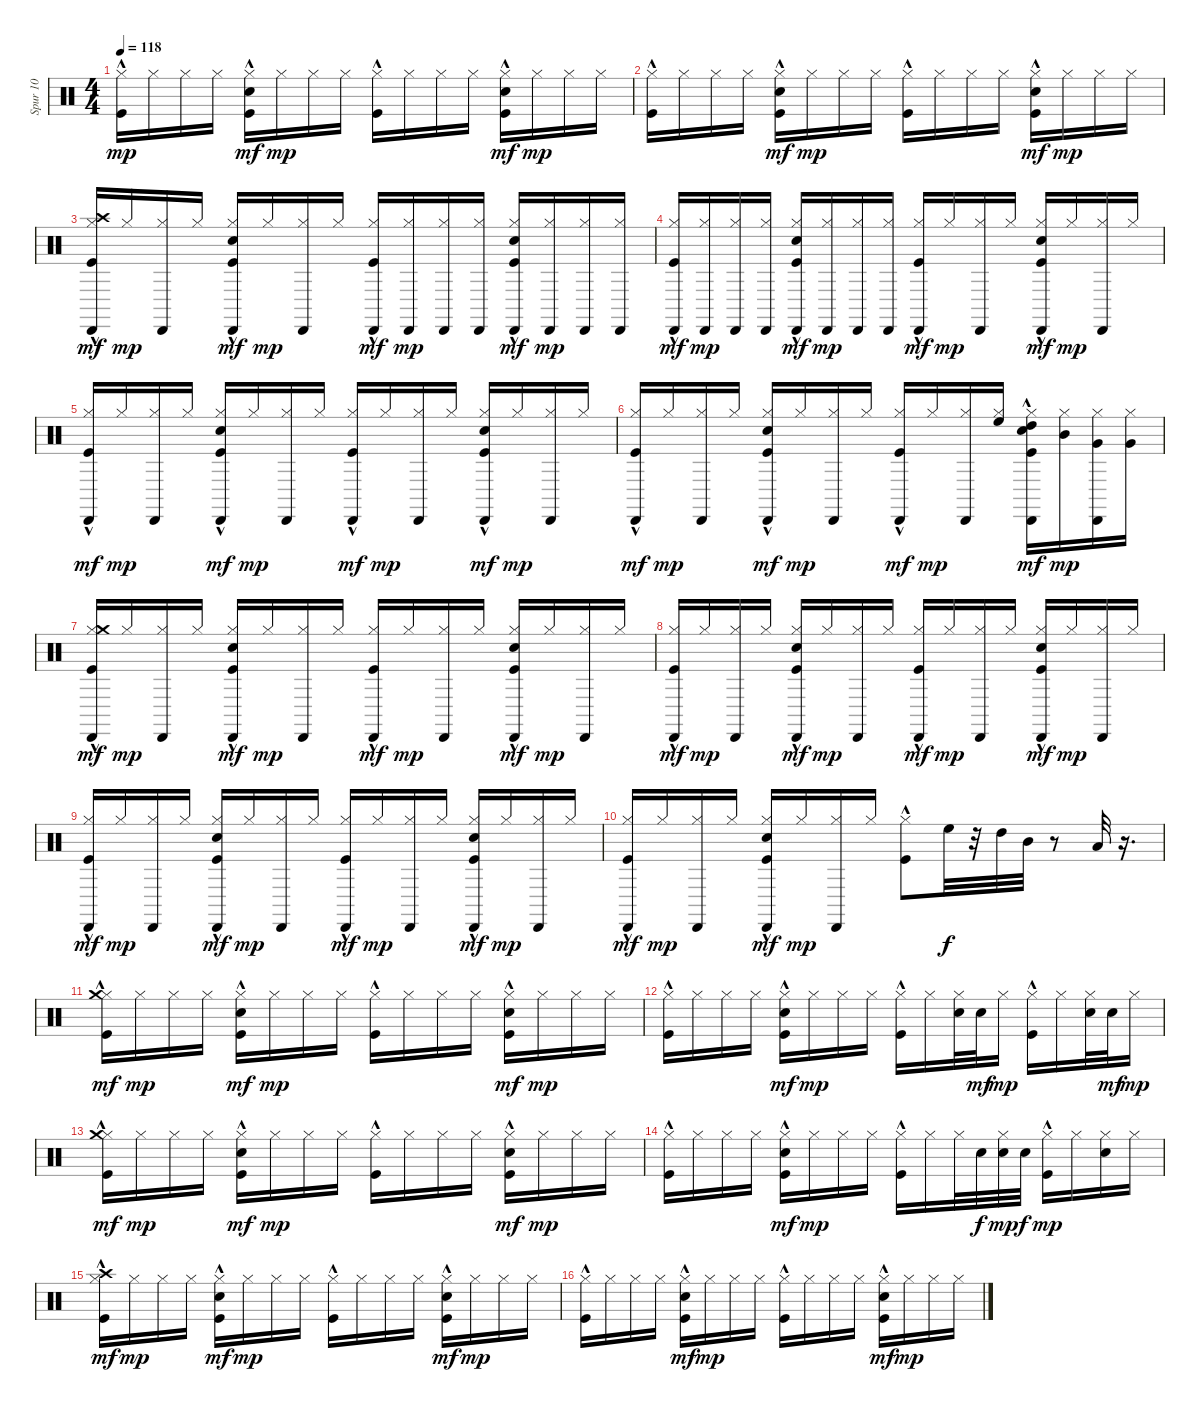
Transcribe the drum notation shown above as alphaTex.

\track ("Spur 10" "Spur 10") {instrument percussion}
\staff {score}
\articulation defaults
\ts (4 4)
\tempo 118
\clef neutral
\ks c
("Hi-Hat (closed)" "Kick (hit)"{hac}).16{dy mp} "Hi-Hat (closed)".16 "Hi-Hat (closed)".16 "Hi-Hat (closed)".16 ("Hi-Hat (closed)" "Kick (hit)"{hac} "Electric Snare (hit)").16{dy mf} "Hi-Hat (closed)".16{dy mp} "Hi-Hat (closed)".16 "Hi-Hat (closed)".16 ("Hi-Hat (closed)" "Kick (hit)"{hac}).16 "Hi-Hat (closed)".16 "Hi-Hat (closed)".16 "Hi-Hat (closed)".16 ("Hi-Hat (closed)" "Kick (hit)"{hac} "Electric Snare (hit)").16{dy mf} "Hi-Hat (closed)".16{dy mp} "Hi-Hat (closed)".16 "Hi-Hat (closed)".16 |
("Hi-Hat (closed)" "Kick (hit)"{hac}).16 "Hi-Hat (closed)".16 "Hi-Hat (closed)".16 "Hi-Hat (closed)".16 ("Hi-Hat (closed)" "Kick (hit)"{hac} "Electric Snare (hit)").16{dy mf} "Hi-Hat (closed)".16{dy mp} "Hi-Hat (closed)".16 "Hi-Hat (closed)".16 ("Hi-Hat (closed)" "Kick (hit)"{hac}).16 "Hi-Hat (closed)".16 "Hi-Hat (closed)".16 "Hi-Hat (closed)".16 ("Hi-Hat (closed)" "Kick (hit)"{hac} "Electric Snare (hit)").16{dy mf} "Hi-Hat (closed)".16{dy mp} "Hi-Hat (closed)".16 "Hi-Hat (closed)".16 |
("Hi-Hat (closed)" "Kick (hit)"{hac} "Crash high (hit)"{hac} "Cabasa (hit)").16{dy mf} "Hi-Hat (closed)".16{dy mp} ("Hi-Hat (closed)" "Cabasa (hit)").16 "Hi-Hat (closed)".16 ("Hi-Hat (closed)" "Kick (hit)"{hac} "Electric Snare (hit)" "Cabasa (hit)").16{dy mf} "Hi-Hat (closed)".16{dy mp} ("Hi-Hat (closed)" "Cabasa (hit)").16 "Hi-Hat (closed)".16 ("Hi-Hat (closed)" "Kick (hit)"{hac} "Cabasa (hit)").16{dy mf} ("Hi-Hat (closed)" "Cabasa (hit)").16{dy mp} ("Hi-Hat (closed)" "Cabasa (hit)").16 ("Hi-Hat (closed)" "Cabasa (hit)").16 ("Hi-Hat (closed)" "Kick (hit)"{hac} "Electric Snare (hit)" "Cabasa (hit)").16{dy mf} ("Hi-Hat (closed)" "Cabasa (hit)").16{dy mp} ("Hi-Hat (closed)" "Cabasa (hit)").16 ("Hi-Hat (closed)" "Cabasa (hit)").16 |
("Hi-Hat (closed)" "Kick (hit)"{hac} "Cabasa (hit)").16{dy mf} ("Hi-Hat (closed)" "Cabasa (hit)").16{dy mp} ("Hi-Hat (closed)" "Cabasa (hit)").16 ("Hi-Hat (closed)" "Cabasa (hit)").16 ("Hi-Hat (closed)" "Kick (hit)"{hac} "Electric Snare (hit)" "Cabasa (hit)").16{dy mf} ("Hi-Hat (closed)" "Cabasa (hit)").16{dy mp} ("Hi-Hat (closed)" "Cabasa (hit)").16 ("Hi-Hat (closed)" "Cabasa (hit)").16 ("Hi-Hat (closed)" "Kick (hit)"{hac} "Cabasa (hit)").16{dy mf} "Hi-Hat (closed)".16{dy mp} ("Hi-Hat (closed)" "Cabasa (hit)").16 "Hi-Hat (closed)".16 ("Hi-Hat (closed)" "Kick (hit)"{hac} "Electric Snare (hit)" "Cabasa (hit)").16{dy mf} "Hi-Hat (closed)".16{dy mp} ("Hi-Hat (closed)" "Cabasa (hit)").16 "Hi-Hat (closed)".16 |
("Hi-Hat (closed)" "Kick (hit)"{hac} "Cabasa (hit)").16{dy mf} "Hi-Hat (closed)".16{dy mp} ("Hi-Hat (closed)" "Cabasa (hit)").16 "Hi-Hat (closed)".16 ("Hi-Hat (closed)" "Kick (hit)"{hac} "Electric Snare (hit)" "Cabasa (hit)").16{dy mf} "Hi-Hat (closed)".16{dy mp} ("Hi-Hat (closed)" "Cabasa (hit)").16 "Hi-Hat (closed)".16 ("Hi-Hat (closed)" "Kick (hit)"{hac} "Cabasa (hit)").16{dy mf} "Hi-Hat (closed)".16{dy mp} ("Hi-Hat (closed)" "Cabasa (hit)").16 "Hi-Hat (closed)".16 ("Hi-Hat (closed)" "Kick (hit)"{hac} "Electric Snare (hit)" "Cabasa (hit)").16{dy mf} "Hi-Hat (closed)".16{dy mp} ("Hi-Hat (closed)" "Cabasa (hit)").16 "Hi-Hat (closed)".16 |
("Hi-Hat (closed)" "Kick (hit)"{hac} "Cabasa (hit)").16{dy mf} "Hi-Hat (closed)".16{dy mp} ("Hi-Hat (closed)" "Cabasa (hit)").16 "Hi-Hat (closed)".16 ("Hi-Hat (closed)" "Kick (hit)"{hac} "Electric Snare (hit)" "Cabasa (hit)").16{dy mf} "Hi-Hat (closed)".16{dy mp} ("Hi-Hat (closed)" "Cabasa (hit)").16 "Hi-Hat (closed)".16 ("Hi-Hat (closed)" "Kick (hit)"{hac} "Cabasa (hit)").16{dy mf} "Hi-Hat (closed)".16{dy mp} ("Hi-Hat (closed)" "Cabasa (hit)").16 ("High Floor Tom (hit)" "Hi-Hat (closed)").16 ("High Tom (hit)" "Hi-Hat (closed)" "Kick (hit)"{hac} "Electric Snare (hit)" "Cabasa (hit)").16{dy mf} ("Mid Tom (hit)" "Hi-Hat (closed)").16{dy mp} ("Very Low Tom (hit)" "Hi-Hat (closed)" "Cabasa (hit)").16 ("Very Low Tom (hit)" "Hi-Hat (closed)").16 |
("Hi-Hat (closed)" "Kick (hit)"{hac} "Crash medium (hit)"{hac} "Cabasa (hit)").16{dy mf} "Hi-Hat (closed)".16{dy mp} ("Hi-Hat (closed)" "Cabasa (hit)").16 "Hi-Hat (closed)".16 ("Hi-Hat (closed)" "Kick (hit)"{hac} "Electric Snare (hit)" "Cabasa (hit)").16{dy mf} "Hi-Hat (closed)".16{dy mp} ("Hi-Hat (closed)" "Cabasa (hit)").16 "Hi-Hat (closed)".16 ("Hi-Hat (closed)" "Kick (hit)"{hac} "Cabasa (hit)").16{dy mf} "Hi-Hat (closed)".16{dy mp} ("Hi-Hat (closed)" "Cabasa (hit)").16 "Hi-Hat (closed)".16 ("Hi-Hat (closed)" "Kick (hit)"{hac} "Electric Snare (hit)" "Cabasa (hit)").16{dy mf} "Hi-Hat (closed)".16{dy mp} ("Hi-Hat (closed)" "Cabasa (hit)").16 "Hi-Hat (closed)".16 |
("Hi-Hat (closed)" "Kick (hit)"{hac} "Cabasa (hit)").16{dy mf} "Hi-Hat (closed)".16{dy mp} ("Hi-Hat (closed)" "Cabasa (hit)").16 "Hi-Hat (closed)".16 ("Hi-Hat (closed)" "Kick (hit)"{hac} "Electric Snare (hit)" "Cabasa (hit)").16{dy mf} "Hi-Hat (closed)".16{dy mp} ("Hi-Hat (closed)" "Cabasa (hit)").16 "Hi-Hat (closed)".16 ("Hi-Hat (closed)" "Kick (hit)"{hac} "Cabasa (hit)").16{dy mf} "Hi-Hat (closed)".16{dy mp} ("Hi-Hat (closed)" "Cabasa (hit)").16 "Hi-Hat (closed)".16 ("Hi-Hat (closed)" "Kick (hit)"{hac} "Electric Snare (hit)" "Cabasa (hit)").16{dy mf} "Hi-Hat (closed)".16{dy mp} ("Hi-Hat (closed)" "Cabasa (hit)").16 "Hi-Hat (closed)".16 |
("Hi-Hat (closed)" "Kick (hit)"{hac} "Cabasa (hit)").16{dy mf} "Hi-Hat (closed)".16{dy mp} ("Hi-Hat (closed)" "Cabasa (hit)").16 "Hi-Hat (closed)".16 ("Hi-Hat (closed)" "Kick (hit)"{hac} "Electric Snare (hit)" "Cabasa (hit)").16{dy mf} "Hi-Hat (closed)".16{dy mp} ("Hi-Hat (closed)" "Cabasa (hit)").16 "Hi-Hat (closed)".16 ("Hi-Hat (closed)" "Kick (hit)"{hac} "Cabasa (hit)").16{dy mf} "Hi-Hat (closed)".16{dy mp} ("Hi-Hat (closed)" "Cabasa (hit)").16 "Hi-Hat (closed)".16 ("Hi-Hat (closed)" "Kick (hit)"{hac} "Electric Snare (hit)" "Cabasa (hit)").16{dy mf} "Hi-Hat (closed)".16{dy mp} ("Hi-Hat (closed)" "Cabasa (hit)").16 "Hi-Hat (closed)".16 |
("Hi-Hat (closed)" "Kick (hit)"{hac} "Cabasa (hit)").16{dy mf} "Hi-Hat (closed)".16{dy mp} ("Hi-Hat (closed)" "Cabasa (hit)").16 "Hi-Hat (closed)".16 ("Hi-Hat (closed)" "Kick (hit)"{hac} "Electric Snare (hit)" "Cabasa (hit)").16{dy mf} "Hi-Hat (closed)".16{dy mp} ("Hi-Hat (closed)" "Cabasa (hit)").16 "Hi-Hat (closed)".16 ("Hi-Hat (closed)" "Kick (hit)"{hac}).8 "High Floor Tom (hit)".32{dy f} r.32 "High Tom (hit)".32 "Mid Tom (hit)".32 r.8 "Low Tom (hit)".32 r.16{d} |
("Hi-Hat (closed)" "Kick (hit)"{hac} "Crash medium (hit)"{hac}).16{dy mf} "Hi-Hat (closed)".16{dy mp} "Hi-Hat (closed)".16 "Hi-Hat (closed)".16 ("Hi-Hat (closed)" "Kick (hit)"{hac} "Electric Snare (hit)").16{dy mf} "Hi-Hat (closed)".16{dy mp} "Hi-Hat (closed)".16 "Hi-Hat (closed)".16 ("Hi-Hat (closed)" "Kick (hit)"{hac}).16 "Hi-Hat (closed)".16 "Hi-Hat (closed)".16 "Hi-Hat (closed)".16 ("Hi-Hat (closed)" "Kick (hit)"{hac} "Electric Snare (hit)").16{dy mf} "Hi-Hat (closed)".16{dy mp} "Hi-Hat (closed)".16 "Hi-Hat (closed)".16 |
("Hi-Hat (closed)" "Kick (hit)"{hac}).16 "Hi-Hat (closed)".16 "Hi-Hat (closed)".16 "Hi-Hat (closed)".16 ("Hi-Hat (closed)" "Kick (hit)"{hac} "Electric Snare (hit)").16{dy mf} "Hi-Hat (closed)".16{dy mp} "Hi-Hat (closed)".16 "Hi-Hat (closed)".16 ("Hi-Hat (closed)" "Kick (hit)"{hac}).16 "Hi-Hat (closed)".16 ("Electric Snare (hit)" "Hi-Hat (closed)").32 "Electric Snare (hit)".32{dy mf} "Hi-Hat (closed)".16{dy mp} ("Hi-Hat (closed)" "Kick (hit)"{hac}).16 "Hi-Hat (closed)".16 ("Electric Snare (hit)" "Hi-Hat (closed)").32 "Electric Snare (hit)".32{dy mf} "Hi-Hat (closed)".16{dy mp} |
("Hi-Hat (closed)" "Kick (hit)"{hac} "Crash medium (hit)"{hac}).16{dy mf} "Hi-Hat (closed)".16{dy mp} "Hi-Hat (closed)".16 "Hi-Hat (closed)".16 ("Hi-Hat (closed)" "Kick (hit)"{hac} "Electric Snare (hit)").16{dy mf} "Hi-Hat (closed)".16{dy mp} "Hi-Hat (closed)".16 "Hi-Hat (closed)".16 ("Hi-Hat (closed)" "Kick (hit)"{hac}).16 "Hi-Hat (closed)".16 "Hi-Hat (closed)".16 "Hi-Hat (closed)".16 ("Hi-Hat (closed)" "Kick (hit)"{hac} "Electric Snare (hit)").16{dy mf} "Hi-Hat (closed)".16{dy mp} "Hi-Hat (closed)".16 "Hi-Hat (closed)".16 |
("Hi-Hat (closed)" "Kick (hit)"{hac}).16 "Hi-Hat (closed)".16 "Hi-Hat (closed)".16 "Hi-Hat (closed)".16 ("Hi-Hat (closed)" "Kick (hit)"{hac} "Electric Snare (hit)").16{dy mf} "Hi-Hat (closed)".16{dy mp} "Hi-Hat (closed)".16 "Hi-Hat (closed)".16 ("Hi-Hat (closed)" "Kick (hit)"{hac}).16 "Hi-Hat (closed)".16 "Hi-Hat (closed)".32 "Electric Snare (hit)".32{dy f} ("Hi-Hat (closed)" "Electric Snare (hit)").32{dy mp} "Electric Snare (hit)".32{dy f} ("Hi-Hat (closed)" "Kick (hit)"{hac}).16{dy mp} "Hi-Hat (closed)".16 ("Electric Snare (hit)" "Hi-Hat (closed)").16 "Hi-Hat (closed)".16 |
("Hi-Hat (closed)" "Kick (hit)"{hac} "Crash high (hit)"{hac}).16{dy mf} "Hi-Hat (closed)".16{dy mp} "Hi-Hat (closed)".16 "Hi-Hat (closed)".16 ("Hi-Hat (closed)" "Kick (hit)"{hac} "Electric Snare (hit)").16{dy mf} "Hi-Hat (closed)".16{dy mp} "Hi-Hat (closed)".16 "Hi-Hat (closed)".16 ("Hi-Hat (closed)" "Kick (hit)"{hac}).16 "Hi-Hat (closed)".16 "Hi-Hat (closed)".16 "Hi-Hat (closed)".16 ("Hi-Hat (closed)" "Kick (hit)"{hac} "Electric Snare (hit)").16{dy mf} "Hi-Hat (closed)".16{dy mp} "Hi-Hat (closed)".16 "Hi-Hat (closed)".16 |
("Hi-Hat (closed)" "Kick (hit)"{hac}).16 "Hi-Hat (closed)".16 "Hi-Hat (closed)".16 "Hi-Hat (closed)".16 ("Hi-Hat (closed)" "Kick (hit)"{hac} "Electric Snare (hit)").16{dy mf} "Hi-Hat (closed)".16{dy mp} "Hi-Hat (closed)".16 "Hi-Hat (closed)".16 ("Hi-Hat (closed)" "Kick (hit)"{hac}).16 "Hi-Hat (closed)".16 "Hi-Hat (closed)".16 "Hi-Hat (closed)".16 ("Hi-Hat (closed)" "Kick (hit)"{hac} "Electric Snare (hit)").16{dy mf} "Hi-Hat (closed)".16{dy mp} "Hi-Hat (closed)".16 "Hi-Hat (closed)".16
